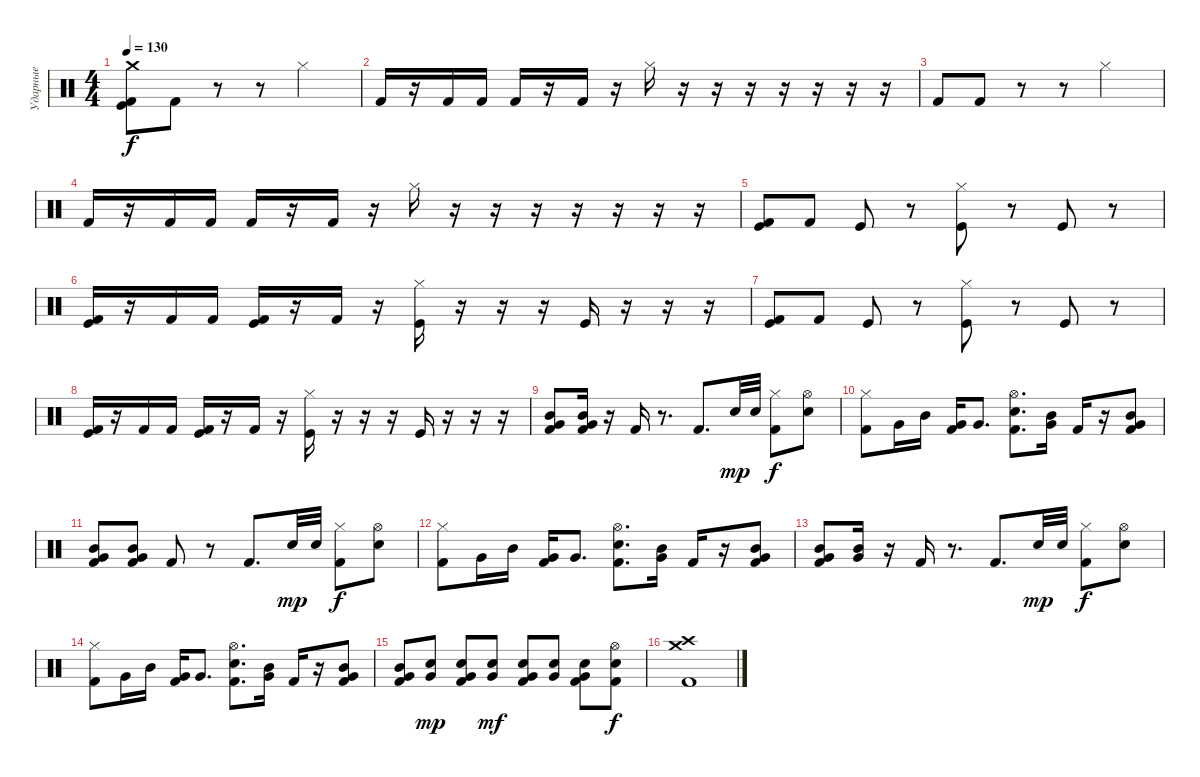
\track ("Ударные" "Ударные") {instrument percussion}
\staff {score}
\articulation defaults
\ts (4 4)
\tempo 130
\clef neutral
\ks c
("Crash medium (hit)" "Kick (hit) 2" "Kick (hit)").8{dy f volume 12} "Kick (hit) 2".8 r.8 r.8 "Hi-Hat (closed)".2 |
"Kick (hit) 2".16 r.16 "Kick (hit) 2".16 "Kick (hit) 2".16 "Kick (hit) 2".16 r.16 "Kick (hit) 2".16 r.16 "Hi-Hat (closed)".16 r.16 r.16 r.16 r.16 r.16 r.16 r.16 |
"Kick (hit) 2".8 "Kick (hit) 2".8 r.8 r.8 "Hi-Hat (closed)".2 |
"Kick (hit) 2".16 r.16 "Kick (hit) 2".16 "Kick (hit) 2".16 "Kick (hit) 2".16 r.16 "Kick (hit) 2".16 r.16 "Hi-Hat (closed)".16 r.16 r.16 r.16 r.16 r.16 r.16 r.16 |
("Kick (hit) 2" "Kick (hit)").8 "Kick (hit) 2".8 "Kick (hit)".8 r.8 ("Hi-Hat (closed)" "Kick (hit)").8 r.8 "Kick (hit)".8 r.8 |
("Kick (hit) 2" "Kick (hit)").16 r.16 "Kick (hit) 2".16 "Kick (hit) 2".16 ("Kick (hit) 2" "Kick (hit)").16 r.16 "Kick (hit) 2".16 r.16 ("Hi-Hat (closed)" "Kick (hit)").16 r.16 r.16 r.16 "Kick (hit)".16 r.16 r.16 r.16 |
("Kick (hit) 2" "Kick (hit)").8 "Kick (hit) 2".8 "Kick (hit)".8 r.8 ("Hi-Hat (closed)" "Kick (hit)").8 r.8 "Kick (hit)".8 r.8 |
("Kick (hit) 2" "Kick (hit)").16 r.16 "Kick (hit) 2".16 "Kick (hit) 2".16 ("Kick (hit) 2" "Kick (hit)").16 r.16 "Kick (hit) 2".16 r.16 ("Hi-Hat (closed)" "Kick (hit)").16 r.16 r.16 r.16 "Kick (hit)".16 r.16 r.16 r.16 |
("Very Low Tom (hit)" "Mid Tom (hit)" "Kick (hit) 2").8{volume 13} ("Very Low Tom (hit)" "Mid Tom (hit)" "Kick (hit) 2").16 r.16 "Kick (hit) 2".16 r.8{d} "Kick (hit) 2".8{d} "Electric Snare (hit)".32{dy mp} "Electric Snare (hit)".32 ("Hi-Hat (closed)" "Kick (hit) 2").8{dy f} ("Hi-Hat (open)" "Electric Snare (hit)").8 |
("Hi-Hat (closed)" "Kick (hit) 2").8 "Very Low Tom (hit)".16 "Mid Tom (hit)".16 ("Very Low Tom (hit)" "Kick (hit) 2").16 "Very Low Tom (hit)".8{d} ("Hi-Hat (open)" "Electric Snare (hit)" "Kick (hit) 2").8{d} ("Mid Tom (hit)" "Very Low Tom (hit)").16 "Kick (hit) 2".16 r.16 ("Mid Tom (hit)" "Very Low Tom (hit)" "Kick (hit) 2").8 |
("Very Low Tom (hit)" "Mid Tom (hit)" "Kick (hit) 2").8 ("Very Low Tom (hit)" "Mid Tom (hit)" "Kick (hit) 2").8 "Kick (hit) 2".8 r.8 "Kick (hit) 2".8{d} "Electric Snare (hit)".32{dy mp} "Electric Snare (hit)".32 ("Hi-Hat (closed)" "Kick (hit) 2").8{dy f} ("Hi-Hat (open)" "Electric Snare (hit)").8 |
("Hi-Hat (closed)" "Kick (hit) 2").8 "Very Low Tom (hit)".16 "Mid Tom (hit)".16 ("Very Low Tom (hit)" "Kick (hit) 2").16 "Very Low Tom (hit)".8{d} ("Hi-Hat (open)" "Electric Snare (hit)" "Kick (hit) 2").8{d} ("Mid Tom (hit)" "Very Low Tom (hit)").16 "Kick (hit) 2".16 r.16 ("Mid Tom (hit)" "Very Low Tom (hit)" "Kick (hit) 2").8 |
("Very Low Tom (hit)" "Mid Tom (hit)" "Kick (hit) 2").8 ("Very Low Tom (hit)" "Mid Tom (hit)").16 r.16 "Kick (hit) 2".16 r.8{d} "Kick (hit) 2".8{d} "Electric Snare (hit)".32{dy mp} "Electric Snare (hit)".32 ("Hi-Hat (closed)" "Kick (hit) 2").8{dy f} ("Hi-Hat (open)" "Electric Snare (hit)").8 |
("Hi-Hat (closed)" "Kick (hit) 2").8 "Very Low Tom (hit)".16 "Mid Tom (hit)".16 ("Very Low Tom (hit)" "Kick (hit) 2").16 "Very Low Tom (hit)".8{d} ("Hi-Hat (open)" "Electric Snare (hit)" "Kick (hit) 2").8{d} ("Mid Tom (hit)" "Very Low Tom (hit)").16 "Kick (hit) 2".16 r.16 ("Mid Tom (hit)" "Very Low Tom (hit)" "Kick (hit) 2").8 |
("Very Low Tom (hit)" "Mid Tom (hit)" "Kick (hit) 2").8 ("Electric Snare (hit)" "Very Low Tom (hit)").8{dy mp} ("Electric Snare (hit)" "Very Low Tom (hit)" "Kick (hit) 2").8 ("Electric Snare (hit)" "Very Low Tom (hit)").8{dy mf} ("Electric Snare (hit)" "Very Low Tom (hit)" "Kick (hit) 2").8 ("Electric Snare (hit)" "Very Low Tom (hit)").8 ("Electric Snare (hit)" "Very Low Tom (hit)" "Kick (hit) 2").8 ("Hi-Hat (open)" "Electric Snare (hit)" "Kick (hit) 2").8{dy f} |
("Crash high (hit)" "Crash medium (hit)" "Kick (hit) 2").1
